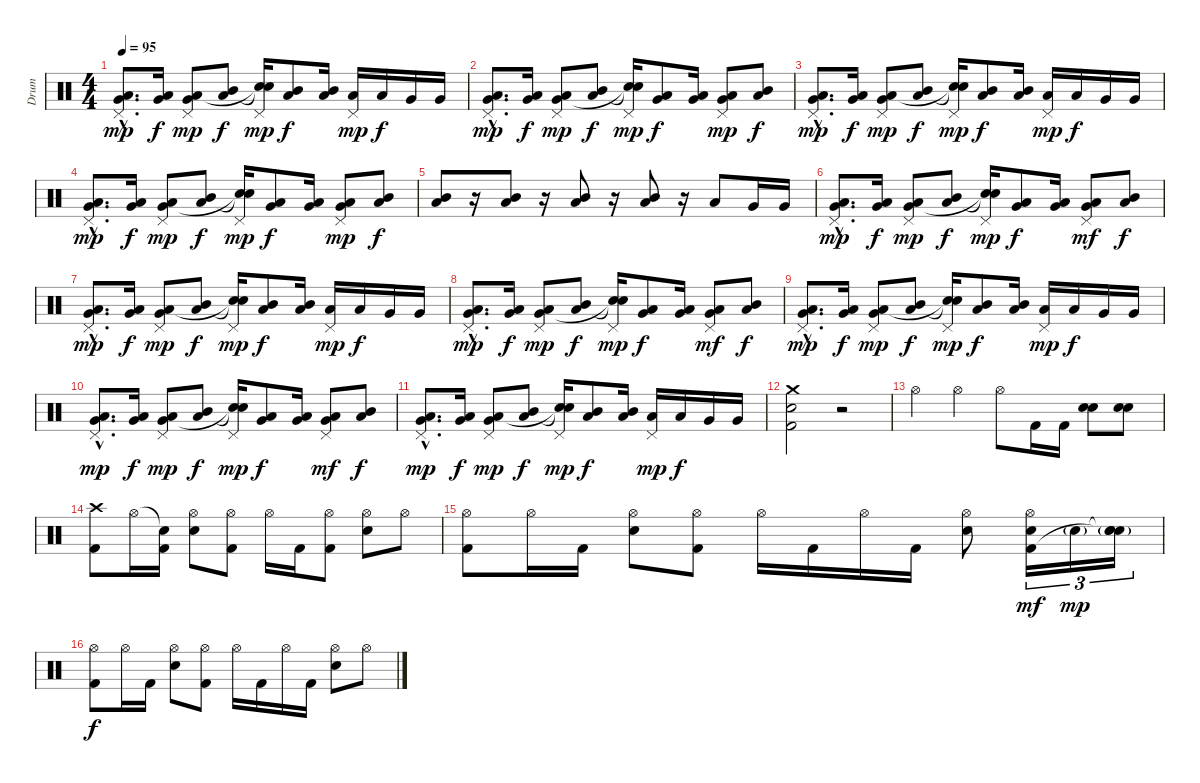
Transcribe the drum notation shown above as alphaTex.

\track ("Drum" "Drum") {instrument percussion}
\staff {score}
\articulation defaults
\ts (4 4)
\tempo 95
\clef neutral
\ks c
("Pedal Hi-Hat (hit)"{hac} "Low Tom (hit)"{hac} "Very Low Tom (hit)"{hac}).8{d dy mp} ("Very Low Tom (hit)" "Low Floor Tom (hit)").16{dy f} ("Pedal Hi-Hat (hit)" "Very Low Tom (hit)" "Low Floor Tom (hit)").8{dy mp} ("Mid Tom (hit)" "Low Tom (hit)").8{dy f} ("Pedal Hi-Hat (hit)" "Snare (hit)"{t} "Snare (hit)"{t}).16{dy mp} ("Mid Tom (hit)" "Low Tom (hit)").8{dy f} ("Mid Tom (hit)" "Low Tom (hit)").16 ("Pedal Hi-Hat (hit)" "Low Tom (hit)").16{dy mp} "Low Tom (hit)".16{dy f} "Very Low Tom (hit)".16 "Very Low Tom (hit)".16 |
("Pedal Hi-Hat (hit)"{hac} "Very Low Tom (hit)"{hac} "Low Floor Tom (hit)"{hac}).8{d dy mp} ("Low Tom (hit)" "Very Low Tom (hit)").16{dy f} ("Pedal Hi-Hat (hit)" "Low Tom (hit)" "Very Low Tom (hit)").8{dy mp} ("Mid Tom (hit)" "Low Tom (hit)").8{dy f} ("Pedal Hi-Hat (hit)" "Snare (hit)"{t} "Snare (hit)"{t}).16{dy mp} ("Low Tom (hit)" "Very Low Tom (hit)").8{dy f} ("Low Tom (hit)" "Very Low Tom (hit)").16 ("Pedal Hi-Hat (hit)" "Very Low Tom (hit)" "Low Floor Tom (hit)").8{dy mp} ("Mid Tom (hit)" "Low Tom (hit)").8{dy f} |
("Pedal Hi-Hat (hit)"{hac} "Low Tom (hit)"{hac} "Very Low Tom (hit)"{hac}).8{d dy mp} ("Very Low Tom (hit)" "Low Floor Tom (hit)").16{dy f} ("Pedal Hi-Hat (hit)" "Very Low Tom (hit)" "Low Floor Tom (hit)").8{dy mp} ("Mid Tom (hit)" "Low Tom (hit)").8{dy f} ("Pedal Hi-Hat (hit)" "Snare (hit)"{t} "Snare (hit)"{t}).16{dy mp} ("Mid Tom (hit)" "Low Tom (hit)").8{dy f} ("Mid Tom (hit)" "Low Tom (hit)").16 ("Pedal Hi-Hat (hit)" "Low Tom (hit)").16{dy mp} "Low Tom (hit)".16{dy f} "Very Low Tom (hit)".16 "Very Low Tom (hit)".16 |
("Pedal Hi-Hat (hit)"{hac} "Very Low Tom (hit)"{hac} "Low Floor Tom (hit)"{hac}).8{d dy mp} ("Low Tom (hit)" "Very Low Tom (hit)").16{dy f} ("Pedal Hi-Hat (hit)" "Low Tom (hit)" "Very Low Tom (hit)").8{dy mp} ("Mid Tom (hit)" "Low Tom (hit)").8{dy f} ("Pedal Hi-Hat (hit)" "Snare (hit)"{t} "Snare (hit)"{t}).16{dy mp} ("Low Tom (hit)" "Very Low Tom (hit)").8{dy f} ("Low Tom (hit)" "Very Low Tom (hit)").16 ("Pedal Hi-Hat (hit)" "Very Low Tom (hit)" "Low Floor Tom (hit)").8{dy mp} ("Mid Tom (hit)" "Low Tom (hit)").8{dy f} |
("Mid Tom (hit)" "Low Tom (hit)").8 r.16 ("Mid Tom (hit)" "Low Tom (hit)").8 r.16 ("Mid Tom (hit)" "Low Tom (hit)").8 r.16 ("Mid Tom (hit)" "Low Tom (hit)").8 r.16 "Low Tom (hit)".8 "Very Low Tom (hit)".16 "Very Low Tom (hit)".16 |
("Pedal Hi-Hat (hit)"{hac} "Very Low Tom (hit)"{hac} "Low Floor Tom (hit)"{hac}).8{d dy mp} ("Low Tom (hit)" "Very Low Tom (hit)").16{dy f} ("Pedal Hi-Hat (hit)" "Low Tom (hit)" "Very Low Tom (hit)").8{dy mp} ("Mid Tom (hit)" "Low Tom (hit)").8{dy f} ("Pedal Hi-Hat (hit)" "Snare (hit)"{t} "Snare (hit)"{t}).16{dy mp} ("Low Tom (hit)" "Very Low Tom (hit)").8{dy f} ("Low Tom (hit)" "Very Low Tom (hit)").16 ("Pedal Hi-Hat (hit)" "Very Low Tom (hit)" "Low Floor Tom (hit)").8{dy mf} ("Mid Tom (hit)" "Low Tom (hit)").8{dy f} |
("Pedal Hi-Hat (hit)"{hac} "Low Tom (hit)"{hac} "Very Low Tom (hit)"{hac}).8{d dy mp} ("Very Low Tom (hit)" "Low Floor Tom (hit)").16{dy f} ("Pedal Hi-Hat (hit)" "Very Low Tom (hit)" "Low Floor Tom (hit)").8{dy mp} ("Mid Tom (hit)" "Low Tom (hit)").8{dy f} ("Pedal Hi-Hat (hit)" "Snare (hit)"{t} "Snare (hit)"{t}).16{dy mp} ("Mid Tom (hit)" "Low Tom (hit)").8{dy f} ("Mid Tom (hit)" "Low Tom (hit)").16 ("Pedal Hi-Hat (hit)" "Low Tom (hit)").16{dy mp} "Low Tom (hit)".16{dy f} "Very Low Tom (hit)".16 "Very Low Tom (hit)".16 |
("Pedal Hi-Hat (hit)"{hac} "Very Low Tom (hit)"{hac} "Low Floor Tom (hit)"{hac}).8{d dy mp} ("Low Tom (hit)" "Very Low Tom (hit)").16{dy f} ("Pedal Hi-Hat (hit)" "Low Tom (hit)" "Very Low Tom (hit)").8{dy mp} ("Mid Tom (hit)" "Low Tom (hit)").8{dy f} ("Pedal Hi-Hat (hit)" "Snare (hit)"{t} "Snare (hit)"{t}).16{dy mp} ("Low Tom (hit)" "Very Low Tom (hit)").8{dy f} ("Low Tom (hit)" "Very Low Tom (hit)").16 ("Pedal Hi-Hat (hit)" "Very Low Tom (hit)" "Low Floor Tom (hit)").8{dy mf} ("Mid Tom (hit)" "Low Tom (hit)").8{dy f} |
("Pedal Hi-Hat (hit)"{hac} "Low Tom (hit)"{hac} "Very Low Tom (hit)"{hac}).8{d dy mp} ("Very Low Tom (hit)" "Low Floor Tom (hit)").16{dy f} ("Pedal Hi-Hat (hit)" "Very Low Tom (hit)" "Low Floor Tom (hit)").8{dy mp} ("Mid Tom (hit)" "Low Tom (hit)").8{dy f} ("Pedal Hi-Hat (hit)" "Snare (hit)"{t} "Snare (hit)"{t}).16{dy mp} ("Mid Tom (hit)" "Low Tom (hit)").8{dy f} ("Mid Tom (hit)" "Low Tom (hit)").16 ("Pedal Hi-Hat (hit)" "Low Tom (hit)").16{dy mp} "Low Tom (hit)".16{dy f} "Very Low Tom (hit)".16 "Very Low Tom (hit)".16 |
("Pedal Hi-Hat (hit)"{hac} "Very Low Tom (hit)"{hac} "Low Floor Tom (hit)"{hac}).8{d dy mp} ("Low Tom (hit)" "Very Low Tom (hit)").16{dy f} ("Pedal Hi-Hat (hit)" "Low Tom (hit)" "Very Low Tom (hit)").8{dy mp} ("Mid Tom (hit)" "Low Tom (hit)").8{dy f} ("Pedal Hi-Hat (hit)" "Snare (hit)"{t} "Snare (hit)"{t}).16{dy mp} ("Low Tom (hit)" "Very Low Tom (hit)").8{dy f} ("Low Tom (hit)" "Very Low Tom (hit)").16 ("Pedal Hi-Hat (hit)" "Very Low Tom (hit)" "Low Floor Tom (hit)").8{dy mf} ("Mid Tom (hit)" "Low Tom (hit)").8{dy f} |
("Pedal Hi-Hat (hit)"{hac} "Low Tom (hit)"{hac} "Very Low Tom (hit)"{hac}).8{d dy mp} ("Very Low Tom (hit)" "Low Floor Tom (hit)").16{dy f} ("Pedal Hi-Hat (hit)" "Very Low Tom (hit)" "Low Floor Tom (hit)").8{dy mp} ("Mid Tom (hit)" "Low Tom (hit)").8{dy f} ("Pedal Hi-Hat (hit)" "Snare (hit)"{t} "Snare (hit)"{t}).16{dy mp} ("Mid Tom (hit)" "Low Tom (hit)").8{dy f} ("Mid Tom (hit)" "Low Tom (hit)").16 ("Pedal Hi-Hat (hit)" "Low Tom (hit)").16{dy mp} "Low Tom (hit)".16{dy f} "Very Low Tom (hit)".16 "Very Low Tom (hit)".16 |
("Crash medium (hit)" "Electric Snare (hit)" "Kick (hit) 2").2 r.2 |
"Hi-Hat (open)".4 "Hi-Hat (open)".4 "Hi-Hat (open)".8 "Kick (hit) 2".16 "Kick (hit) 2".16 ("Electric Snare (hit)" "Electric Snare (hit)").8 ("Electric Snare (hit)" "Electric Snare (hit)").8 |
("Crash high (hit)" "Kick (hit) 2").8 "Hi-Hat (open)".16 ("Snare (hit)"{t} "Kick (hit) 2").16 ("Hi-Hat (open)" "Electric Snare (hit)").8 ("Hi-Hat (open)" "Kick (hit) 2").8 "Hi-Hat (open)".16 "Kick (hit) 2".16 ("Hi-Hat (open)" "Kick (hit) 2").8 ("Hi-Hat (open)" "Electric Snare (hit)").8 "Hi-Hat (open)".8 |
("Hi-Hat (open)" "Kick (hit) 2").8 "Hi-Hat (open)".16 "Kick (hit) 2".16 ("Hi-Hat (open)" "Electric Snare (hit)").8 ("Hi-Hat (open)" "Kick (hit) 2").8 "Hi-Hat (open)".16 "Kick (hit) 2".16 "Hi-Hat (open)".16 "Kick (hit) 2".16 ("Hi-Hat (open)" "Electric Snare (hit)").8 ("Hi-Hat (open)" "Kick (hit) 2" "Electric Snare (hit)").16{tu (3 2) dy mf} "Electric Snare (hit)"{g}.16{tu (3 2) dy mp} ("Snare (hit)"{t} "Snare (hit)"{t} "Electric Snare (hit)"{g}).16{tu (3 2)} |
("Hi-Hat (open)" "Kick (hit) 2").8{dy f} "Hi-Hat (open)".16 "Kick (hit) 2".16 ("Hi-Hat (open)" "Electric Snare (hit)").8 ("Hi-Hat (open)" "Kick (hit) 2").8 "Hi-Hat (open)".16 "Kick (hit) 2".16 "Hi-Hat (open)".16 "Kick (hit) 2".16 ("Hi-Hat (open)" "Electric Snare (hit)").8 "Hi-Hat (open)".8
